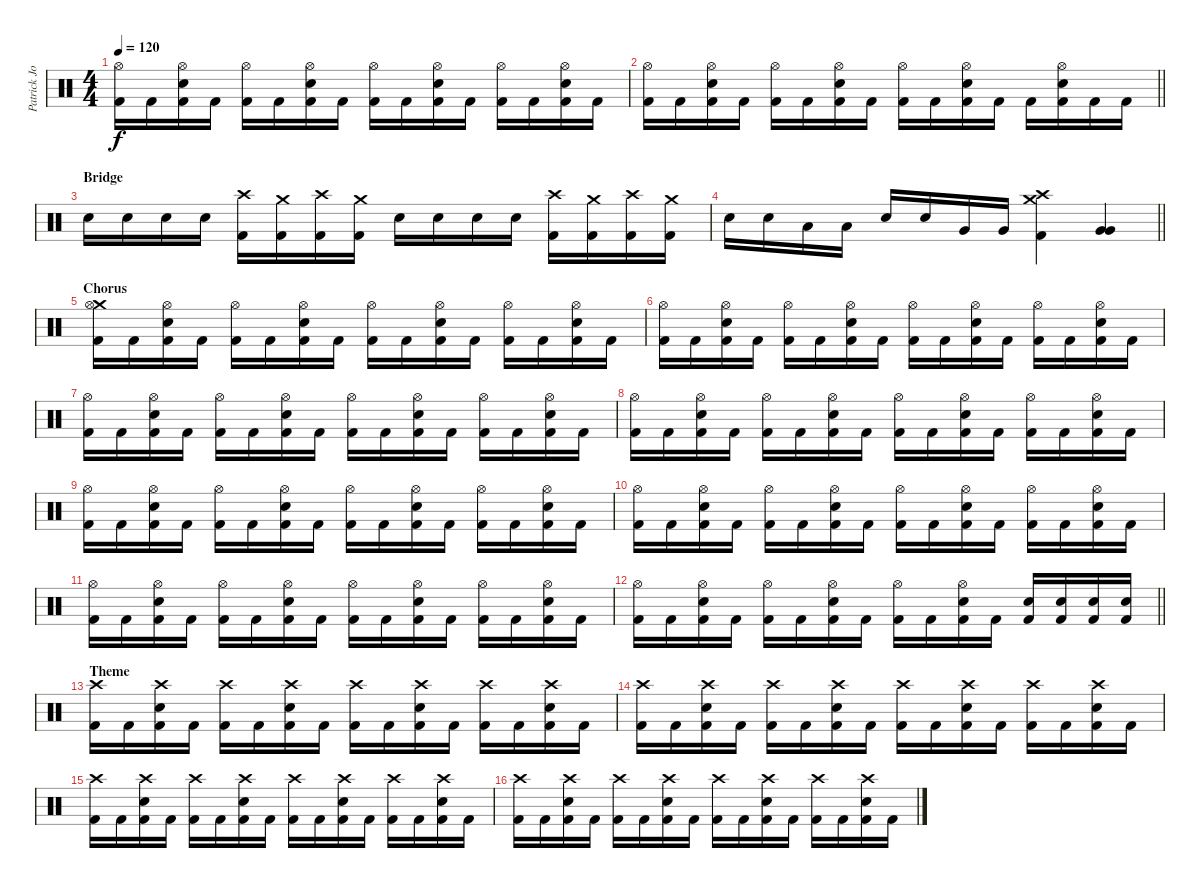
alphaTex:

\track ("Patrick Johansson" "Patrick Jo") {instrument percussion}
\staff {score}
\articulation defaults
\ts (4 4)
\tempo 120
\clef neutral
\ks c
("Hi-Hat (open)" "Kick (hit) 2").16{dy f} "Kick (hit) 2".16 ("Hi-Hat (open)" "Snare (hit) 2" "Kick (hit) 2").16 "Kick (hit) 2".16 ("Hi-Hat (open)" "Kick (hit) 2").16 "Kick (hit) 2".16 ("Hi-Hat (open)" "Snare (hit) 2" "Kick (hit) 2").16 "Kick (hit) 2".16 ("Hi-Hat (open)" "Kick (hit) 2").16 "Kick (hit) 2".16 ("Hi-Hat (open)" "Snare (hit) 2" "Kick (hit) 2").16 "Kick (hit) 2".16 ("Hi-Hat (open)" "Kick (hit) 2").16 "Kick (hit) 2".16 ("Hi-Hat (open)" "Snare (hit) 2" "Kick (hit) 2").16 "Kick (hit) 2".16 |
\barLineRight lightlight
("Hi-Hat (open)" "Kick (hit) 2").16 "Kick (hit) 2".16 ("Hi-Hat (open)" "Snare (hit) 2" "Kick (hit) 2").16 "Kick (hit) 2".16 ("Hi-Hat (open)" "Kick (hit) 2").16 "Kick (hit) 2".16 ("Hi-Hat (open)" "Snare (hit) 2" "Kick (hit) 2").16 "Kick (hit) 2".16 ("Hi-Hat (open)" "Kick (hit) 2").16 "Kick (hit) 2".16 ("Hi-Hat (open)" "Snare (hit) 2" "Kick (hit) 2").16 "Kick (hit) 2".16 "Kick (hit) 2".16 ("Hi-Hat (open)" "Snare (hit) 2" "Kick (hit) 2").16 "Kick (hit) 2".16 "Kick (hit) 2".16 |
\section ("" "Bridge")
"Snare (hit) 2".16 "Snare (hit) 2".16 "Snare (hit) 2".16 "Snare (hit) 2".16 ("Crash high (hit)" "Kick (hit) 2").16 ("Crash medium (hit)" "Kick (hit) 2").16 ("Crash high (hit)" "Kick (hit) 2").16 ("Crash medium (hit)" "Kick (hit) 2").16 "Snare (hit) 2".16 "Snare (hit) 2".16 "Snare (hit) 2".16 "Snare (hit) 2".16 ("Crash high (hit)" "Kick (hit) 2").16 ("Crash medium (hit)" "Kick (hit) 2").16 ("Crash high (hit)" "Kick (hit) 2").16 ("Crash medium (hit)" "Kick (hit) 2").16 |
\barLineRight lightlight "Snare (hit) 2".16 "Snare (hit) 2".16 "Low Tom (hit)".16 "Low Tom (hit)".16 "Snare (hit) 2".16 "Snare (hit) 2".16 "Very Low Tom (hit)".16 "Very Low Tom (hit)".16
("Crash medium (hit)" "Crash high (hit)" "Kick (hit) 2").4 ("Very Low Tom (hit)" "Very Low Tom (hit)").4 |
\section ("" "Chorus")
("Crash medium (hit)" "Hi-Hat (open)" "Kick (hit) 2").16 "Kick (hit) 2".16 ("Hi-Hat (open)" "Snare (hit) 2" "Kick (hit) 2").16 "Kick (hit) 2".16 ("Hi-Hat (open)" "Kick (hit) 2").16 "Kick (hit) 2".16 ("Hi-Hat (open)" "Snare (hit) 2" "Kick (hit) 2").16 "Kick (hit) 2".16 ("Hi-Hat (open)" "Kick (hit) 2").16 "Kick (hit) 2".16 ("Hi-Hat (open)" "Snare (hit) 2" "Kick (hit) 2").16 "Kick (hit) 2".16 ("Hi-Hat (open)" "Kick (hit) 2").16 "Kick (hit) 2".16 ("Hi-Hat (open)" "Snare (hit) 2" "Kick (hit) 2").16 "Kick (hit) 2".16 |
("Hi-Hat (open)" "Kick (hit) 2").16 "Kick (hit) 2".16 ("Hi-Hat (open)" "Snare (hit) 2" "Kick (hit) 2").16 "Kick (hit) 2".16 ("Hi-Hat (open)" "Kick (hit) 2").16 "Kick (hit) 2".16 ("Hi-Hat (open)" "Snare (hit) 2" "Kick (hit) 2").16 "Kick (hit) 2".16 ("Hi-Hat (open)" "Kick (hit) 2").16 "Kick (hit) 2".16 ("Hi-Hat (open)" "Snare (hit) 2" "Kick (hit) 2").16 "Kick (hit) 2".16 ("Hi-Hat (open)" "Kick (hit) 2").16 "Kick (hit) 2".16 ("Hi-Hat (open)" "Snare (hit) 2" "Kick (hit) 2").16 "Kick (hit) 2".16 |
("Hi-Hat (open)" "Kick (hit) 2").16 "Kick (hit) 2".16 ("Hi-Hat (open)" "Snare (hit) 2" "Kick (hit) 2").16 "Kick (hit) 2".16 ("Hi-Hat (open)" "Kick (hit) 2").16 "Kick (hit) 2".16 ("Hi-Hat (open)" "Snare (hit) 2" "Kick (hit) 2").16 "Kick (hit) 2".16 ("Hi-Hat (open)" "Kick (hit) 2").16 "Kick (hit) 2".16 ("Hi-Hat (open)" "Snare (hit) 2" "Kick (hit) 2").16 "Kick (hit) 2".16 ("Hi-Hat (open)" "Kick (hit) 2").16 "Kick (hit) 2".16 ("Hi-Hat (open)" "Snare (hit) 2" "Kick (hit) 2").16 "Kick (hit) 2".16 |
("Hi-Hat (open)" "Kick (hit) 2").16 "Kick (hit) 2".16 ("Hi-Hat (open)" "Snare (hit) 2" "Kick (hit) 2").16 "Kick (hit) 2".16 ("Hi-Hat (open)" "Kick (hit) 2").16 "Kick (hit) 2".16 ("Hi-Hat (open)" "Snare (hit) 2" "Kick (hit) 2").16 "Kick (hit) 2".16 ("Hi-Hat (open)" "Kick (hit) 2").16 "Kick (hit) 2".16 ("Hi-Hat (open)" "Snare (hit) 2" "Kick (hit) 2").16 "Kick (hit) 2".16 ("Hi-Hat (open)" "Kick (hit) 2").16 "Kick (hit) 2".16 ("Hi-Hat (open)" "Snare (hit) 2" "Kick (hit) 2").16 "Kick (hit) 2".16 |
("Hi-Hat (open)" "Kick (hit) 2").16 "Kick (hit) 2".16 ("Hi-Hat (open)" "Snare (hit) 2" "Kick (hit) 2").16 "Kick (hit) 2".16 ("Hi-Hat (open)" "Kick (hit) 2").16 "Kick (hit) 2".16 ("Hi-Hat (open)" "Snare (hit) 2" "Kick (hit) 2").16 "Kick (hit) 2".16 ("Hi-Hat (open)" "Kick (hit) 2").16 "Kick (hit) 2".16 ("Hi-Hat (open)" "Snare (hit) 2" "Kick (hit) 2").16 "Kick (hit) 2".16 ("Hi-Hat (open)" "Kick (hit) 2").16 "Kick (hit) 2".16 ("Hi-Hat (open)" "Snare (hit) 2" "Kick (hit) 2").16 "Kick (hit) 2".16 |
("Hi-Hat (open)" "Kick (hit) 2").16 "Kick (hit) 2".16 ("Hi-Hat (open)" "Snare (hit) 2" "Kick (hit) 2").16 "Kick (hit) 2".16 ("Hi-Hat (open)" "Kick (hit) 2").16 "Kick (hit) 2".16 ("Hi-Hat (open)" "Snare (hit) 2" "Kick (hit) 2").16 "Kick (hit) 2".16 ("Hi-Hat (open)" "Kick (hit) 2").16 "Kick (hit) 2".16 ("Hi-Hat (open)" "Snare (hit) 2" "Kick (hit) 2").16 "Kick (hit) 2".16 ("Hi-Hat (open)" "Kick (hit) 2").16 "Kick (hit) 2".16 ("Hi-Hat (open)" "Snare (hit) 2" "Kick (hit) 2").16 "Kick (hit) 2".16 |
("Hi-Hat (open)" "Kick (hit) 2").16 "Kick (hit) 2".16 ("Hi-Hat (open)" "Snare (hit) 2" "Kick (hit) 2").16 "Kick (hit) 2".16 ("Hi-Hat (open)" "Kick (hit) 2").16 "Kick (hit) 2".16 ("Hi-Hat (open)" "Snare (hit) 2" "Kick (hit) 2").16 "Kick (hit) 2".16 ("Hi-Hat (open)" "Kick (hit) 2").16 "Kick (hit) 2".16 ("Hi-Hat (open)" "Snare (hit) 2" "Kick (hit) 2").16 "Kick (hit) 2".16 ("Hi-Hat (open)" "Kick (hit) 2").16 "Kick (hit) 2".16 ("Hi-Hat (open)" "Snare (hit) 2" "Kick (hit) 2").16 "Kick (hit) 2".16 |
\barLineRight lightlight
("Hi-Hat (open)" "Kick (hit) 2").16 "Kick (hit) 2".16 ("Hi-Hat (open)" "Snare (hit) 2" "Kick (hit) 2").16 "Kick (hit) 2".16 ("Hi-Hat (open)" "Kick (hit) 2").16 "Kick (hit) 2".16 ("Hi-Hat (open)" "Snare (hit) 2" "Kick (hit) 2").16 "Kick (hit) 2".16 ("Hi-Hat (open)" "Kick (hit) 2").16 "Kick (hit) 2".16 ("Hi-Hat (open)" "Snare (hit) 2" "Kick (hit) 2").16 "Kick (hit) 2".16 ("Snare (hit) 2" "Kick (hit) 2").16 ("Snare (hit) 2" "Kick (hit) 2").16 ("Snare (hit) 2" "Kick (hit) 2").16 ("Snare (hit) 2" "Kick (hit) 2").16 |
\section ("" "Theme")
("Crash high (hit)" "Kick (hit) 2").16 "Kick (hit) 2".16 ("Crash high (hit)" "Snare (hit) 2" "Kick (hit) 2").16 "Kick (hit) 2".16 ("Crash high (hit)" "Kick (hit) 2").16 "Kick (hit) 2".16 ("Crash high (hit)" "Snare (hit) 2" "Kick (hit) 2").16 "Kick (hit) 2".16 ("Crash high (hit)" "Kick (hit) 2").16 "Kick (hit) 2".16 ("Crash high (hit)" "Snare (hit) 2" "Kick (hit) 2").16 "Kick (hit) 2".16 ("Crash high (hit)" "Kick (hit) 2").16 "Kick (hit) 2".16 ("Crash high (hit)" "Snare (hit) 2" "Kick (hit) 2").16 "Kick (hit) 2".16 |
("Crash high (hit)" "Kick (hit) 2").16 "Kick (hit) 2".16 ("Crash high (hit)" "Snare (hit) 2" "Kick (hit) 2").16 "Kick (hit) 2".16 ("Crash high (hit)" "Kick (hit) 2").16 "Kick (hit) 2".16 ("Crash high (hit)" "Snare (hit) 2" "Kick (hit) 2").16 "Kick (hit) 2".16 ("Crash high (hit)" "Kick (hit) 2").16 "Kick (hit) 2".16 ("Crash high (hit)" "Snare (hit) 2" "Kick (hit) 2").16 "Kick (hit) 2".16 ("Crash high (hit)" "Kick (hit) 2").16 "Kick (hit) 2".16 ("Crash high (hit)" "Snare (hit) 2" "Kick (hit) 2").16 "Kick (hit) 2".16 |
("Crash high (hit)" "Kick (hit) 2").16 "Kick (hit) 2".16 ("Crash high (hit)" "Snare (hit) 2" "Kick (hit) 2").16 "Kick (hit) 2".16 ("Crash high (hit)" "Kick (hit) 2").16 "Kick (hit) 2".16 ("Crash high (hit)" "Snare (hit) 2" "Kick (hit) 2").16 "Kick (hit) 2".16 ("Crash high (hit)" "Kick (hit) 2").16 "Kick (hit) 2".16 ("Crash high (hit)" "Snare (hit) 2" "Kick (hit) 2").16 "Kick (hit) 2".16 ("Crash high (hit)" "Kick (hit) 2").16 "Kick (hit) 2".16 ("Crash high (hit)" "Snare (hit) 2" "Kick (hit) 2").16 "Kick (hit) 2".16 |
("Crash high (hit)" "Kick (hit) 2").16 "Kick (hit) 2".16 ("Crash high (hit)" "Snare (hit) 2" "Kick (hit) 2").16 "Kick (hit) 2".16 ("Crash high (hit)" "Kick (hit) 2").16 "Kick (hit) 2".16 ("Crash high (hit)" "Snare (hit) 2" "Kick (hit) 2").16 "Kick (hit) 2".16 ("Crash high (hit)" "Kick (hit) 2").16 "Kick (hit) 2".16 ("Crash high (hit)" "Snare (hit) 2" "Kick (hit) 2").16 "Kick (hit) 2".16 ("Crash high (hit)" "Kick (hit) 2").16 "Kick (hit) 2".16 ("Crash high (hit)" "Snare (hit) 2" "Kick (hit) 2").16 "Kick (hit) 2".16
